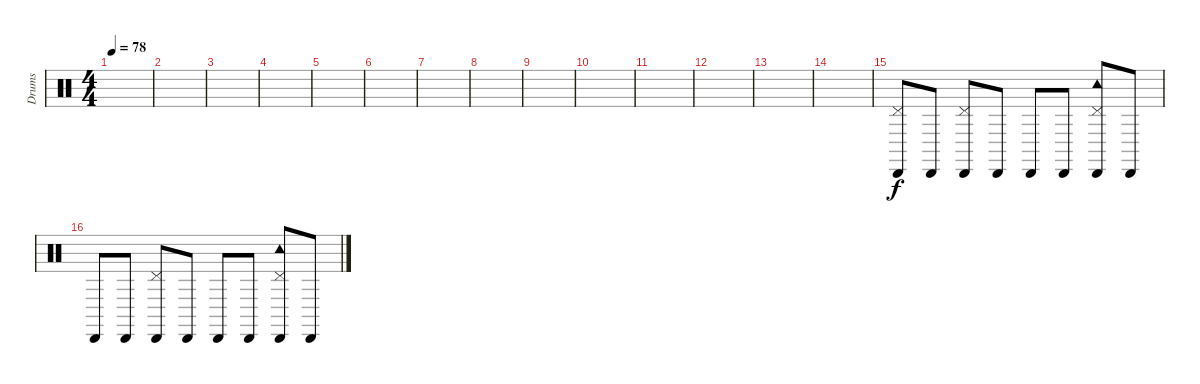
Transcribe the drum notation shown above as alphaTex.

\track ("Drums" "Drums") {instrument percussion}
\staff {score}
\articulation defaults
\ts (4 4)
\tempo 78
\clef neutral
\ks c
|
|
|
|
|
|
|
|
|
|
|
|
|
|
("Cabasa (hit)" "Pedal Hi-Hat (hit)").8{volume 5} "Cabasa (hit)".8{volume 4} ("Cabasa (hit)" "Pedal Hi-Hat (hit)").8{volume 6} "Cabasa (hit)".8{volume 4} "Cabasa (hit)".8 "Cabasa (hit)".8 ("Cabasa (hit)" "Pedal Hi-Hat (hit)" "Tambourine (hit)").8{volume 6} "Cabasa (hit)".8{volume 4} |
"Cabasa (hit)".8 "Cabasa (hit)".8 ("Cabasa (hit)" "Pedal Hi-Hat (hit)").8{volume 6} "Cabasa (hit)".8{volume 4} "Cabasa (hit)".8 "Cabasa (hit)".8 ("Cabasa (hit)" "Pedal Hi-Hat (hit)" "Tambourine (hit)").8{volume 6} "Cabasa (hit)".8{volume 4}
